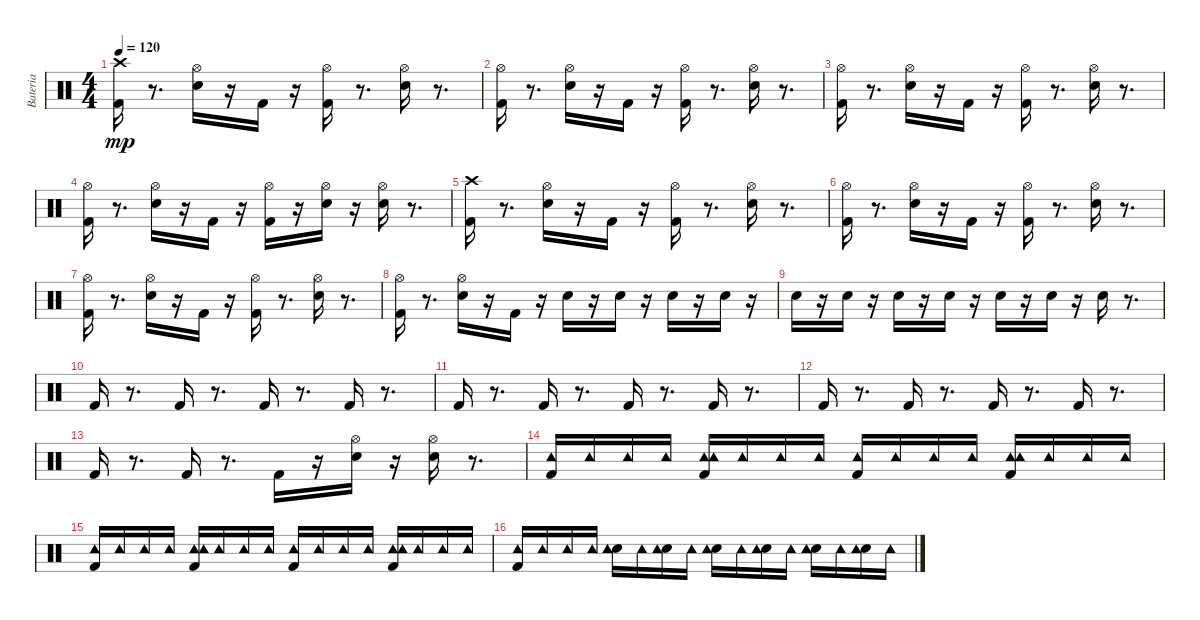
\track ("Bateria" "Bateria") {instrument percussion}
\staff {score}
\articulation defaults
\ts (4 4)
\tempo 120
\clef neutral
\ks c
("Kick (hit) 2" "Crash high (hit)").16{dy mp} r.8{d} ("Snare (hit) 2" "Hi-Hat (open)").16 r.16 "Kick (hit) 2".16 r.16 ("Hi-Hat (open)" "Kick (hit) 2").16 r.8{d} ("Hi-Hat (open)" "Snare (hit) 2").16 r.8{d} |
("Hi-Hat (open)" "Kick (hit) 2").16 r.8{d} ("Hi-Hat (open)" "Snare (hit) 2").16 r.16 "Kick (hit) 2".16 r.16 ("Hi-Hat (open)" "Kick (hit) 2").16 r.8{d} ("Hi-Hat (open)" "Snare (hit) 2").16 r.8{d} |
("Hi-Hat (open)" "Kick (hit) 2").16 r.8{d} ("Snare (hit) 2" "Hi-Hat (open)").16 r.16 "Kick (hit) 2".16 r.16 ("Hi-Hat (open)" "Kick (hit) 2").16 r.8{d} ("Hi-Hat (open)" "Snare (hit) 2").16 r.8{d} |
("Hi-Hat (open)" "Kick (hit) 2").16 r.8{d} ("Hi-Hat (open)" "Snare (hit) 2").16 r.16 "Kick (hit) 2".16 r.16 ("Hi-Hat (open)" "Kick (hit) 2").16 r.16 ("Snare (hit) 2" "Hi-Hat (open)").16 r.16 ("Hi-Hat (open)" "Snare (hit) 2").16 r.8{d} |
("Kick (hit) 2" "Crash high (hit)").16 r.8{d} ("Snare (hit) 2" "Hi-Hat (open)").16 r.16 "Kick (hit) 2".16 r.16 ("Hi-Hat (open)" "Kick (hit) 2").16 r.8{d} ("Hi-Hat (open)" "Snare (hit) 2").16 r.8{d} |
("Hi-Hat (open)" "Kick (hit) 2").16 r.8{d} ("Hi-Hat (open)" "Snare (hit) 2").16 r.16 "Kick (hit) 2".16 r.16 ("Hi-Hat (open)" "Kick (hit) 2").16 r.8{d} ("Hi-Hat (open)" "Snare (hit) 2").16 r.8{d} |
("Hi-Hat (open)" "Kick (hit) 2").16 r.8{d} ("Hi-Hat (open)" "Snare (hit) 2").16 r.16 "Kick (hit) 2".16 r.16 ("Hi-Hat (open)" "Kick (hit) 2").16 r.8{d} ("Hi-Hat (open)" "Snare (hit) 2").16 r.8{d} |
("Hi-Hat (open)" "Kick (hit) 2").16 r.8{d} ("Hi-Hat (open)" "Snare (hit) 2").16 r.16 "Kick (hit) 2".16 r.16 "Snare (hit) 2".16 r.16 "Snare (hit) 2".16 r.16 "Snare (hit) 2".16 r.16 "Snare (hit) 2".16 r.16 |
"Snare (hit) 2".16 r.16 "Snare (hit) 2".16 r.16 "Snare (hit) 2".16 r.16 "Snare (hit) 2".16 r.16 "Snare (hit) 2".16 r.16 "Snare (hit) 2".16 r.16 "Snare (hit) 2".16 r.8{d} |
"Kick (hit) 2".16 r.8{d} "Kick (hit) 2".16 r.8{d} "Kick (hit) 2".16 r.8{d} "Kick (hit) 2".16 r.8{d} |
"Kick (hit) 2".16 r.8{d} "Kick (hit) 2".16 r.8{d} "Kick (hit) 2".16 r.8{d} "Kick (hit) 2".16 r.8{d} |
"Kick (hit) 2".16 r.8{d} "Kick (hit) 2".16 r.8{d} "Kick (hit) 2".16 r.8{d} "Kick (hit) 2".16 r.8{d} |
"Kick (hit) 2".16 r.8{d} "Kick (hit) 2".16 r.8{d} "Kick (hit) 2".16 r.16 ("Snare (hit) 2" "Hi-Hat (open)").16 r.16 ("Snare (hit) 2" "Hi-Hat (open)").16 r.8{d} |
("Tambourine (hit)" "Kick (hit) 2").16 "Tambourine (hit)".16 "Tambourine (hit)".16 "Tambourine (hit)".16 ("Tambourine (hit)" "Tambourine (hit)" "Kick (hit) 2").16 "Tambourine (hit)".16 "Tambourine (hit)".16 "Tambourine (hit)".16 ("Tambourine (hit)" "Kick (hit) 2").16 "Tambourine (hit)".16 "Tambourine (hit)".16 "Tambourine (hit)".16 ("Tambourine (hit)" "Tambourine (hit)" "Kick (hit) 2").16 "Tambourine (hit)".16 "Tambourine (hit)".16 "Tambourine (hit)".16 |
("Tambourine (hit)" "Kick (hit) 2").16 "Tambourine (hit)".16 "Tambourine (hit)".16 "Tambourine (hit)".16 ("Tambourine (hit)" "Tambourine (hit)" "Kick (hit) 2").16 "Tambourine (hit)".16 "Tambourine (hit)".16 "Tambourine (hit)".16 ("Tambourine (hit)" "Kick (hit) 2").16 "Tambourine (hit)".16 "Tambourine (hit)".16 "Tambourine (hit)".16 ("Tambourine (hit)" "Tambourine (hit)" "Kick (hit) 2").16 "Tambourine (hit)".16 "Tambourine (hit)".16 "Tambourine (hit)".16 |
("Tambourine (hit)" "Kick (hit) 2").16 "Tambourine (hit)".16 "Tambourine (hit)".16 "Tambourine (hit)".16 ("Snare (hit) 2" "Tambourine (hit)" "Tambourine (hit)").16 "Tambourine (hit)".16 ("Snare (hit) 2" "Tambourine (hit)").16 "Tambourine (hit)".16 ("Snare (hit) 2" "Tambourine (hit)").16 "Tambourine (hit)".16 ("Snare (hit) 2" "Tambourine (hit)").16 "Tambourine (hit)".16 ("Snare (hit) 2" "Tambourine (hit)" "Tambourine (hit)").16 "Tambourine (hit)".16 ("Snare (hit) 2" "Tambourine (hit)").16 "Tambourine (hit)".16
